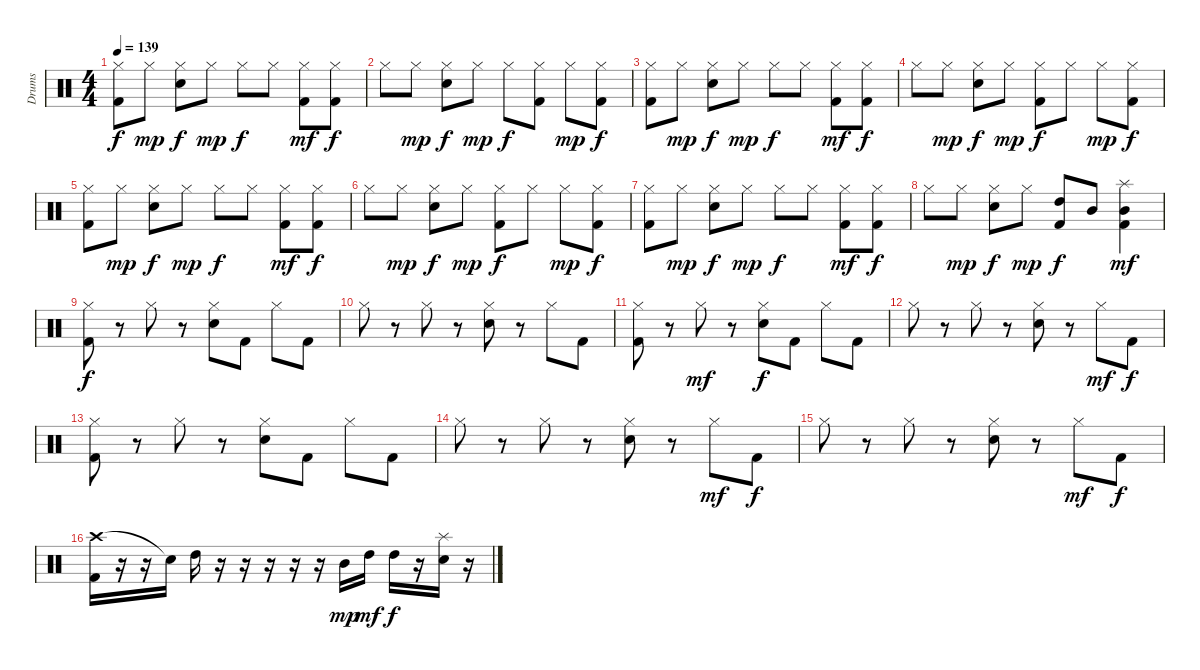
\track ("Drums" "Drums") {instrument percussion}
\staff {score}
\articulation defaults
\ts (4 4)
\tempo 139
\clef neutral
\ks c
("Hi-Hat (closed)" "Kick (hit) 2").8{dy f} "Hi-Hat (closed)".8{dy mp} ("Hi-Hat (closed)" "Snare (hit) 2").8{dy f} "Hi-Hat (closed)".8{dy mp} "Hi-Hat (closed)".8{dy f} "Hi-Hat (closed)".8 ("Hi-Hat (closed)" "Kick (hit) 2").8{dy mf} ("Hi-Hat (closed)" "Kick (hit) 2").8{dy f} |
"Hi-Hat (closed)".8 "Hi-Hat (closed)".8{dy mp} ("Hi-Hat (closed)" "Snare (hit) 2").8{dy f} "Hi-Hat (closed)".8{dy mp} "Hi-Hat (closed)".8{dy f} ("Hi-Hat (closed)" "Kick (hit) 2").8 "Hi-Hat (closed)".8{dy mp} ("Hi-Hat (closed)" "Kick (hit) 2").8{dy f} |
("Hi-Hat (closed)" "Kick (hit) 2").8 "Hi-Hat (closed)".8{dy mp} ("Hi-Hat (closed)" "Snare (hit) 2").8{dy f} "Hi-Hat (closed)".8{dy mp} "Hi-Hat (closed)".8{dy f} "Hi-Hat (closed)".8 ("Hi-Hat (closed)" "Kick (hit) 2").8{dy mf} ("Hi-Hat (closed)" "Kick (hit) 2").8{dy f} |
"Hi-Hat (closed)".8 "Hi-Hat (closed)".8{dy mp} ("Hi-Hat (closed)" "Snare (hit) 2").8{dy f} "Hi-Hat (closed)".8{dy mp} ("Hi-Hat (closed)" "Kick (hit) 2").8{dy f} "Hi-Hat (closed)".8 "Hi-Hat (closed)".8{dy mp} ("Hi-Hat (closed)" "Kick (hit) 2").8{dy f} |
("Hi-Hat (closed)" "Kick (hit) 2").8 "Hi-Hat (closed)".8{dy mp} ("Hi-Hat (closed)" "Snare (hit) 2").8{dy f} "Hi-Hat (closed)".8{dy mp} "Hi-Hat (closed)".8{dy f} "Hi-Hat (closed)".8 ("Hi-Hat (closed)" "Kick (hit) 2").8{dy mf} ("Hi-Hat (closed)" "Kick (hit) 2").8{dy f} |
"Hi-Hat (closed)".8 "Hi-Hat (closed)".8{dy mp} ("Hi-Hat (closed)" "Snare (hit) 2").8{dy f} "Hi-Hat (closed)".8{dy mp} ("Hi-Hat (closed)" "Kick (hit) 2").8{dy f} "Hi-Hat (closed)".8 "Hi-Hat (closed)".8{dy mp} ("Hi-Hat (closed)" "Kick (hit) 2").8{dy f} |
("Hi-Hat (closed)" "Kick (hit) 2").8 "Hi-Hat (closed)".8{dy mp} ("Hi-Hat (closed)" "Snare (hit) 2").8{dy f} "Hi-Hat (closed)".8{dy mp} "Hi-Hat (closed)".8{dy f} "Hi-Hat (closed)".8 ("Hi-Hat (closed)" "Kick (hit) 2").8{dy mf} ("Hi-Hat (closed)" "Kick (hit) 2").8{dy f} |
"Hi-Hat (closed)".8 "Hi-Hat (closed)".8{dy mp} ("Hi-Hat (closed)" "Snare (hit) 2").8{dy f} "Hi-Hat (closed)".8{dy mp} ("High Tom (hit)" "Kick (hit) 2").8{dy f} "Mid Tom (hit)".8 ("Splash (hit)" "Mid Tom (hit)" "Kick (hit) 2").4{dy mf} |
("Hi-Hat (closed)" "Kick (hit) 2").8{dy f} r.8 "Hi-Hat (closed)".8 r.8 ("Hi-Hat (closed)" "Snare (hit) 2").8 "Kick (hit) 2".8 "Hi-Hat (closed)".8 "Kick (hit) 2".8 |
"Hi-Hat (closed)".8 r.8 "Hi-Hat (closed)".8 r.8 ("Hi-Hat (closed)" "Snare (hit) 2").8 r.8 "Hi-Hat (closed)".8 "Kick (hit) 2".8 |
("Hi-Hat (closed)" "Kick (hit) 2").8 r.8 "Hi-Hat (closed)".8{dy mf} r.8 ("Hi-Hat (closed)" "Snare (hit) 2").8{dy f} "Kick (hit) 2".8 "Hi-Hat (closed)".8 "Kick (hit) 2".8 |
"Hi-Hat (closed)".8 r.8 "Hi-Hat (closed)".8 r.8 ("Hi-Hat (closed)" "Snare (hit) 2").8 r.8 "Hi-Hat (closed)".8{dy mf} "Kick (hit) 2".8{dy f} |
("Hi-Hat (closed)" "Kick (hit) 2").8 r.8 "Hi-Hat (closed)".8 r.8 ("Hi-Hat (closed)" "Snare (hit) 2").8 "Kick (hit) 2".8 "Hi-Hat (closed)".8 "Kick (hit) 2".8 |
"Hi-Hat (closed)".8 r.8 "Hi-Hat (closed)".8 r.8 ("Hi-Hat (closed)" "Snare (hit) 2").8 r.8 "Hi-Hat (closed)".8{dy mf} "Kick (hit) 2".8{dy f} |
"Hi-Hat (closed)".8 r.8 "Hi-Hat (closed)".8 r.8 ("Hi-Hat (closed)" "Snare (hit) 2").8 r.8 "Hi-Hat (closed)".8{dy mf} "Kick (hit) 2".8{dy f} |
("Crash high (hit)" "Kick (hit) 2").16 r.16 r.16 "Snare (hit)"{t}.16 "High Tom (hit)".16 r.16 r.16 r.16 r.16 r.16 "Mid Tom (hit)".16{dy mp} "High Tom (hit)".16{dy mf} "High Tom (hit)".16{dy f} r.16 ("Splash (hit)" "Snare (hit) 2").16 r.16
